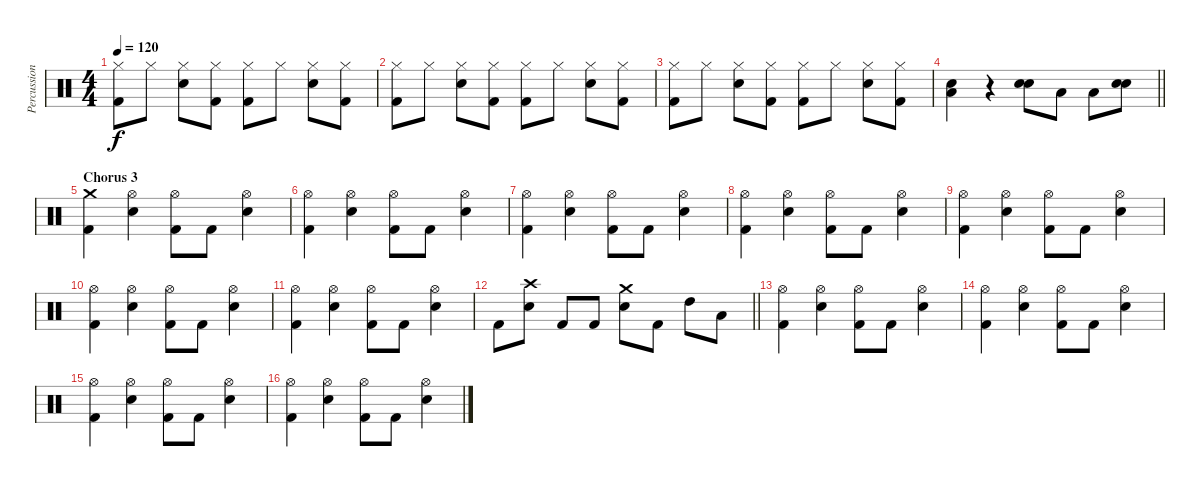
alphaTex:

\track ("Percussion" "Percussion") {instrument percussion}
\staff {score}
\articulation defaults
\ts (4 4)
\tempo 120
\clef neutral
\ks c
("Kick (hit) 2" "Hi-Hat (closed)").8{dy f} "Hi-Hat (closed)".8 ("Snare (hit) 2" "Hi-Hat (closed)").8 ("Kick (hit) 2" "Hi-Hat (closed)").8 ("Kick (hit) 2" "Hi-Hat (closed)").8 "Hi-Hat (closed)".8 ("Snare (hit) 2" "Hi-Hat (closed)").8 ("Kick (hit) 2" "Hi-Hat (closed)").8 |
("Kick (hit) 2" "Hi-Hat (closed)").8 "Hi-Hat (closed)".8 ("Snare (hit) 2" "Hi-Hat (closed)").8 ("Kick (hit) 2" "Hi-Hat (closed)").8 ("Kick (hit) 2" "Hi-Hat (closed)").8 "Hi-Hat (closed)".8 ("Snare (hit) 2" "Hi-Hat (closed)").8 ("Kick (hit) 2" "Hi-Hat (closed)").8 |
("Kick (hit) 2" "Hi-Hat (closed)").8 "Hi-Hat (closed)".8 ("Snare (hit) 2" "Hi-Hat (closed)").8 ("Kick (hit) 2" "Hi-Hat (closed)").8 ("Kick (hit) 2" "Hi-Hat (closed)").8 "Hi-Hat (closed)".8 ("Snare (hit) 2" "Hi-Hat (closed)").8 ("Kick (hit) 2" "Hi-Hat (closed)").8 |
\barLineRight lightlight
("Snare (hit) 2" "Low Floor Tom (hit)").4 r.4 ("Snare (hit) 2" "Snare (hit) 2").8 "Low Tom (hit)".8 "Low Tom (hit)".8 ("Snare (hit) 2" "Snare (hit) 2").8 |
\section ("" "Chorus 3")
("Kick (hit) 2" "Crash medium (hit)").4 ("Snare (hit) 2" "Hi-Hat (open)").4 ("Kick (hit) 2" "Hi-Hat (open)").8 "Kick (hit) 2".8 ("Snare (hit) 2" "Hi-Hat (open)").4 |
("Kick (hit) 2" "Hi-Hat (open)").4 ("Snare (hit) 2" "Hi-Hat (open)").4 ("Kick (hit) 2" "Hi-Hat (open)").8 "Kick (hit) 2".8 ("Snare (hit) 2" "Hi-Hat (open)").4 |
("Kick (hit) 2" "Hi-Hat (open)").4 ("Snare (hit) 2" "Hi-Hat (open)").4 ("Kick (hit) 2" "Hi-Hat (open)").8 "Kick (hit) 2".8 ("Snare (hit) 2" "Hi-Hat (open)").4 |
("Kick (hit) 2" "Hi-Hat (open)").4 ("Snare (hit) 2" "Hi-Hat (open)").4 ("Kick (hit) 2" "Hi-Hat (open)").8 "Kick (hit) 2".8 ("Snare (hit) 2" "Hi-Hat (open)").4 |
("Kick (hit) 2" "Hi-Hat (open)").4 ("Snare (hit) 2" "Hi-Hat (open)").4 ("Kick (hit) 2" "Hi-Hat (open)").8 "Kick (hit) 2".8 ("Snare (hit) 2" "Hi-Hat (open)").4 |
("Kick (hit) 2" "Hi-Hat (open)").4 ("Snare (hit) 2" "Hi-Hat (open)").4 ("Kick (hit) 2" "Hi-Hat (open)").8 "Kick (hit) 2".8 ("Snare (hit) 2" "Hi-Hat (open)").4 |
("Kick (hit) 2" "Hi-Hat (open)").4 ("Snare (hit) 2" "Hi-Hat (open)").4 ("Kick (hit) 2" "Hi-Hat (open)").8 "Kick (hit) 2".8 ("Snare (hit) 2" "Hi-Hat (open)").4 |
\barLineRight lightlight "Kick (hit) 2".8
("Snare (hit) 2" "Crash high (hit)").8 "Kick (hit) 2".8 "Kick (hit) 2".8 ("Snare (hit) 2" "Crash medium (hit)").8 "Kick (hit) 2".8 "High Tom (hit)".8 "Low Tom (hit)".8 |
("Kick (hit) 2" "Hi-Hat (open)").4 ("Snare (hit) 2" "Hi-Hat (open)").4 ("Kick (hit) 2" "Hi-Hat (open)").8 "Kick (hit) 2".8 ("Snare (hit) 2" "Hi-Hat (open)").4 |
("Kick (hit) 2" "Hi-Hat (open)").4 ("Snare (hit) 2" "Hi-Hat (open)").4 ("Kick (hit) 2" "Hi-Hat (open)").8 "Kick (hit) 2".8 ("Snare (hit) 2" "Hi-Hat (open)").4 |
("Kick (hit) 2" "Hi-Hat (open)").4 ("Snare (hit) 2" "Hi-Hat (open)").4 ("Kick (hit) 2" "Hi-Hat (open)").8 "Kick (hit) 2".8 ("Snare (hit) 2" "Hi-Hat (open)").4 |
("Kick (hit) 2" "Hi-Hat (open)").4 ("Snare (hit) 2" "Hi-Hat (open)").4 ("Kick (hit) 2" "Hi-Hat (open)").8 "Kick (hit) 2".8 ("Snare (hit) 2" "Hi-Hat (open)").4
